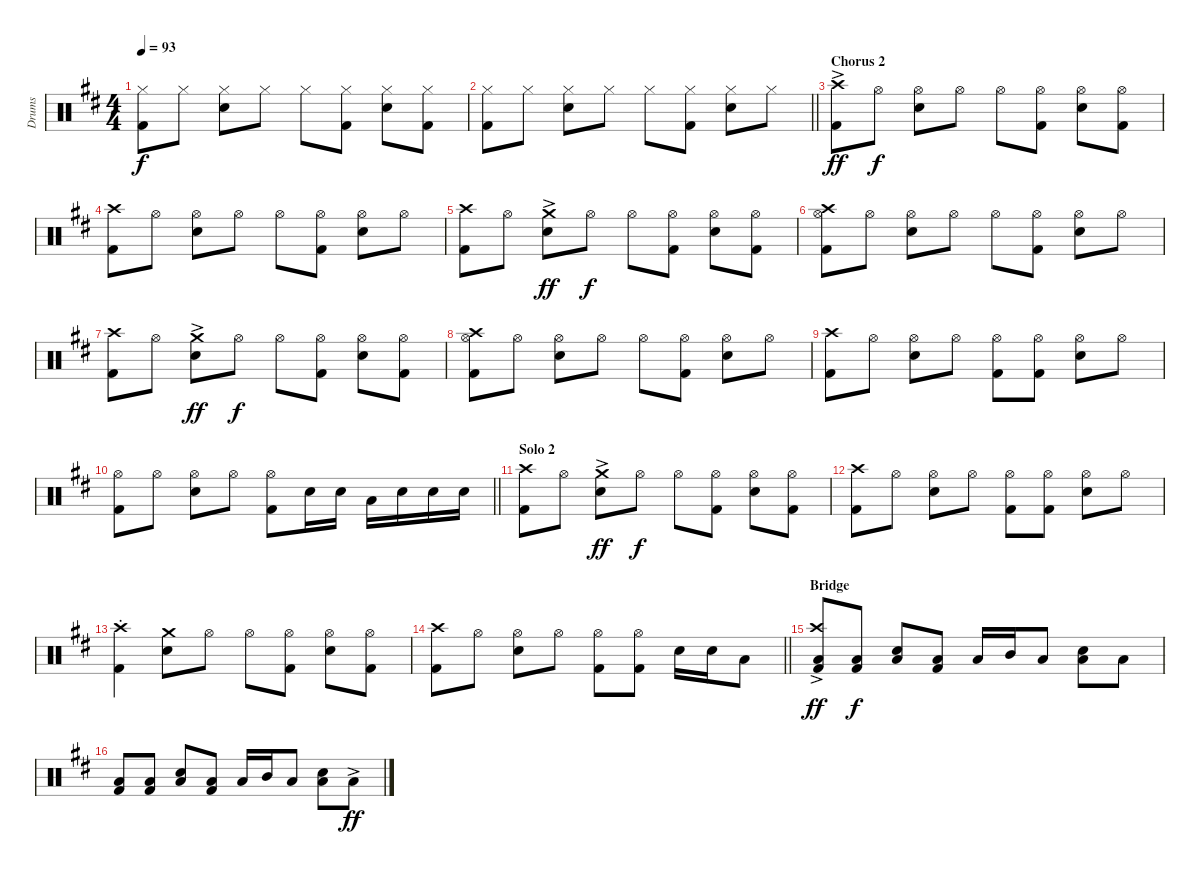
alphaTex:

\track ("Drums" "Drums") {instrument percussion}
\staff {score}
\articulation defaults
\ts (4 4)
\tempo 93
\clef neutral
\ks d
("Hi-Hat (closed)" "Kick (hit) 2").8{dy f} "Hi-Hat (closed)".8 ("Hi-Hat (closed)" "Electric Snare (hit)").8 "Hi-Hat (closed)".8 "Hi-Hat (closed)".8 ("Hi-Hat (closed)" "Kick (hit) 2").8 ("Hi-Hat (closed)" "Electric Snare (hit)").8 ("Hi-Hat (closed)" "Kick (hit) 2").8 |
\barLineRight lightlight
("Hi-Hat (closed)" "Kick (hit) 2").8 "Hi-Hat (closed)".8 ("Hi-Hat (closed)" "Electric Snare (hit)").8 "Hi-Hat (closed)".8 "Hi-Hat (closed)".8 ("Hi-Hat (closed)" "Kick (hit) 2").8 ("Hi-Hat (closed)" "Electric Snare (hit)").8 "Hi-Hat (closed)".8 |
\section ("" "Chorus 2")
("Crash high (hit)"{ac} "Kick (hit) 2").8{dy ff} "Hi-Hat (open)".8{dy f} ("Hi-Hat (open)" "Electric Snare (hit)").8 "Hi-Hat (open)".8 "Hi-Hat (open)".8 ("Hi-Hat (open)" "Kick (hit) 2").8 ("Hi-Hat (open)" "Electric Snare (hit)").8 ("Hi-Hat (open)" "Kick (hit) 2").8 |
("Crash high (hit)" "Kick (hit) 2").8 "Hi-Hat (open)".8 ("Hi-Hat (open)" "Electric Snare (hit)").8 "Hi-Hat (open)".8 "Hi-Hat (open)".8 ("Hi-Hat (open)" "Kick (hit) 2").8 ("Hi-Hat (open)" "Electric Snare (hit)").8 "Hi-Hat (open)".8 |
("Crash high (hit)" "Kick (hit) 2").8 "Hi-Hat (open)".8 ("Crash medium (hit)"{ac} "Electric Snare (hit)").8{dy ff} "Hi-Hat (open)".8{dy f} "Hi-Hat (open)".8 ("Hi-Hat (open)" "Kick (hit) 2").8 ("Hi-Hat (open)" "Electric Snare (hit)").8 ("Hi-Hat (open)" "Kick (hit) 2").8 |
("Hi-Hat (open)" "Crash high (hit)" "Kick (hit) 2").8 "Hi-Hat (open)".8 ("Hi-Hat (open)" "Electric Snare (hit)").8 "Hi-Hat (open)".8 "Hi-Hat (open)".8 ("Hi-Hat (open)" "Kick (hit) 2").8 ("Hi-Hat (open)" "Electric Snare (hit)").8 "Hi-Hat (open)".8 |
("Crash high (hit)" "Kick (hit) 2").8 "Hi-Hat (open)".8 ("Crash medium (hit)"{ac} "Electric Snare (hit)").8{dy ff} "Hi-Hat (open)".8{dy f} "Hi-Hat (open)".8 ("Hi-Hat (open)" "Kick (hit) 2").8 ("Hi-Hat (open)" "Electric Snare (hit)").8 ("Hi-Hat (open)" "Kick (hit) 2").8 |
("Hi-Hat (open)" "Crash high (hit)" "Kick (hit) 2").8 "Hi-Hat (open)".8 ("Hi-Hat (open)" "Electric Snare (hit)").8 "Hi-Hat (open)".8 "Hi-Hat (open)".8 ("Hi-Hat (open)" "Kick (hit) 2").8 ("Hi-Hat (open)" "Electric Snare (hit)").8 "Hi-Hat (open)".8 |
("Crash high (hit)" "Kick (hit) 2").8 "Hi-Hat (open)".8 ("Hi-Hat (open)" "Electric Snare (hit)").8 "Hi-Hat (open)".8 ("Hi-Hat (open)" "Kick (hit) 2").8 ("Hi-Hat (open)" "Kick (hit) 2").8 ("Hi-Hat (open)" "Electric Snare (hit)").8 "Hi-Hat (open)".8 |
\barLineRight lightlight
("Hi-Hat (open)" "Kick (hit) 2").8 "Hi-Hat (open)".8 ("Hi-Hat (open)" "Electric Snare (hit)").8 "Hi-Hat (open)".8 ("Hi-Hat (open)" "Kick (hit) 2").8 "Electric Snare (hit)".16 "Electric Snare (hit)".16 "Low Tom (hit)".16 "Electric Snare (hit)".16 "Electric Snare (hit)".16 "Electric Snare (hit)".16 |
\section ("" "Solo 2")
("Crash high (hit)" "Kick (hit) 2").8 "Hi-Hat (open)".8 ("Crash medium (hit)"{ac} "Electric Snare (hit)").8{dy ff} "Hi-Hat (open)".8{dy f} "Hi-Hat (open)".8 ("Hi-Hat (open)" "Kick (hit) 2").8 ("Hi-Hat (open)" "Electric Snare (hit)").8 ("Hi-Hat (open)" "Kick (hit) 2").8 |
("Crash high (hit)" "Kick (hit) 2").8 "Hi-Hat (open)".8 ("Hi-Hat (open)" "Electric Snare (hit)").8 "Hi-Hat (open)".8 ("Hi-Hat (open)" "Kick (hit) 2").8 ("Hi-Hat (open)" "Kick (hit) 2").8 ("Hi-Hat (open)" "Electric Snare (hit)").8 "Hi-Hat (open)".8 |
("Crash high (hit)"{st} "Kick (hit) 2"{st}).4 ("Crash medium (hit)" "Electric Snare (hit)").8 "Hi-Hat (open)".8 "Hi-Hat (open)".8 ("Hi-Hat (open)" "Kick (hit) 2").8 ("Hi-Hat (open)" "Electric Snare (hit)").8 ("Hi-Hat (open)" "Kick (hit) 2").8 |
\barLineRight lightlight
("Crash high (hit)" "Kick (hit) 2").8 "Hi-Hat (open)".8 ("Hi-Hat (open)" "Electric Snare (hit)").8 "Hi-Hat (open)".8 ("Hi-Hat (open)" "Kick (hit) 2").8 ("Hi-Hat (open)" "Kick (hit) 2").8 "Electric Snare (hit)".16 "Electric Snare (hit)".16 "Low Tom (hit)".8 |
\section ("" "Bridge")
("Crash high (hit)"{ac} "Low Tom (hit)" "Kick (hit) 2").8{dy ff} ("Low Tom (hit)" "Kick (hit) 2").8{dy f} ("Electric Snare (hit)" "Low Tom (hit)").8 ("Low Tom (hit)" "Kick (hit) 2").8 "Low Tom (hit)".16 "Mid Tom (hit)".16 "Low Tom (hit)".8 ("Electric Snare (hit)" "Low Tom (hit)").8 "Low Tom (hit)".8 |
("Low Tom (hit)" "Kick (hit) 2").8 ("Low Tom (hit)" "Kick (hit) 2").8 ("Electric Snare (hit)" "Low Tom (hit)").8 ("Low Tom (hit)" "Kick (hit) 2").8 "Low Tom (hit)".16 "Mid Tom (hit)".16 "Low Tom (hit)".8 ("Electric Snare (hit)" "Low Tom (hit)").8 "Low Tom (hit)"{ac}.8{dy ff}
